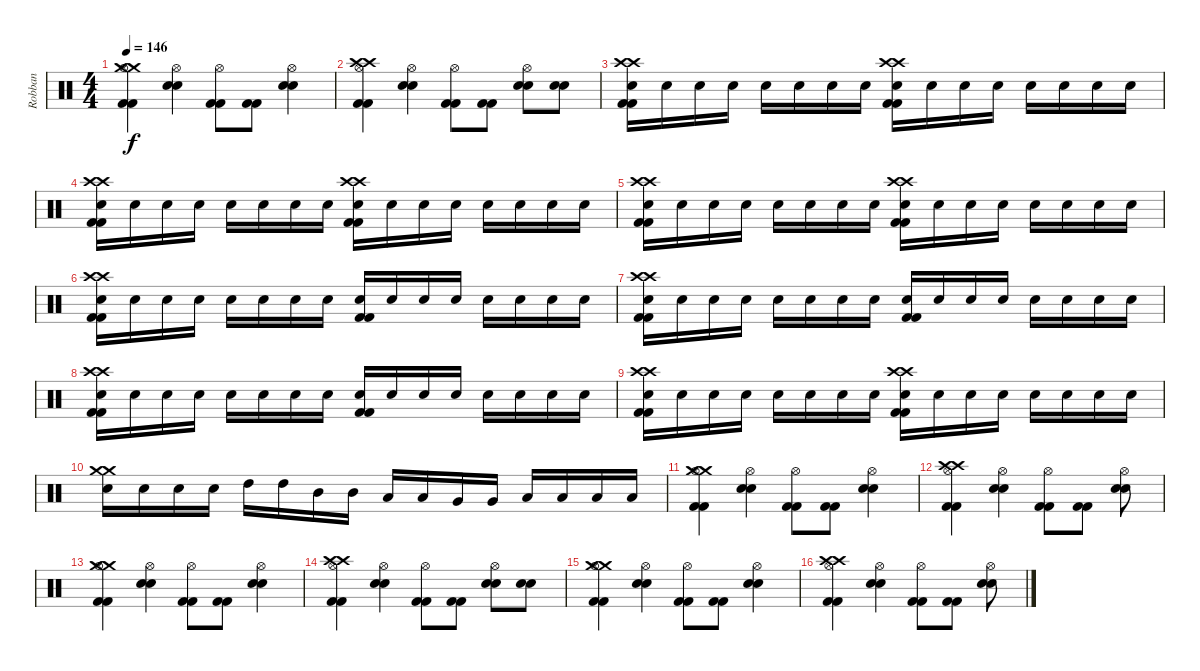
\track ("Robban" "Robban") {instrument percussion}
\staff {score}
\articulation defaults
\ts (4 4)
\tempo 146
\clef neutral
\ks c
("Crash medium (hit)" "Crash medium (hit)" "Hi-Hat (open)" "Kick (hit) 2" "Kick (hit) 2").4{dy f} ("Hi-Hat (open)" "Electric Snare (hit)" "Electric Snare (hit)").4 ("Hi-Hat (open)" "Kick (hit) 2" "Kick (hit) 2").8 ("Kick (hit) 2" "Kick (hit) 2").8 ("Hi-Hat (open)" "Electric Snare (hit)" "Electric Snare (hit)").4 |
("Crash high (hit)" "Crash high (hit)" "Hi-Hat (open)" "Kick (hit) 2" "Kick (hit) 2").4 ("Hi-Hat (open)" "Electric Snare (hit)" "Electric Snare (hit)").4 ("Hi-Hat (open)" "Kick (hit) 2" "Kick (hit) 2").8 ("Kick (hit) 2" "Kick (hit) 2").8 ("Hi-Hat (open)" "Electric Snare (hit)" "Electric Snare (hit)").8 ("Electric Snare (hit)" "Electric Snare (hit)").8 |
("Crash high (hit)" "Crash high (hit)" "Electric Snare (hit)" "Kick (hit) 2" "Kick (hit) 2").16 "Electric Snare (hit)".16 "Electric Snare (hit)".16 "Electric Snare (hit)".16 "Electric Snare (hit)".16 "Electric Snare (hit)".16 "Electric Snare (hit)".16 "Electric Snare (hit)".16 ("Crash high (hit)" "Crash high (hit)" "Electric Snare (hit)" "Kick (hit) 2" "Kick (hit) 2").16 "Electric Snare (hit)".16 "Electric Snare (hit)".16 "Electric Snare (hit)".16 "Electric Snare (hit)".16 "Electric Snare (hit)".16 "Electric Snare (hit)".16 "Electric Snare (hit)".16 |
("Crash high (hit)" "Crash high (hit)" "Electric Snare (hit)" "Kick (hit) 2" "Kick (hit) 2").16 "Electric Snare (hit)".16 "Electric Snare (hit)".16 "Electric Snare (hit)".16 "Electric Snare (hit)".16 "Electric Snare (hit)".16 "Electric Snare (hit)".16 "Electric Snare (hit)".16 ("Crash high (hit)" "Crash high (hit)" "Electric Snare (hit)" "Kick (hit) 2" "Kick (hit) 2").16 "Electric Snare (hit)".16 "Electric Snare (hit)".16 "Electric Snare (hit)".16 "Electric Snare (hit)".16 "Electric Snare (hit)".16 "Electric Snare (hit)".16 "Electric Snare (hit)".16 |
("Crash high (hit)" "Crash high (hit)" "Electric Snare (hit)" "Kick (hit) 2" "Kick (hit) 2").16 "Electric Snare (hit)".16 "Electric Snare (hit)".16 "Electric Snare (hit)".16 "Electric Snare (hit)".16 "Electric Snare (hit)".16 "Electric Snare (hit)".16 "Electric Snare (hit)".16 ("Crash high (hit)" "Crash high (hit)" "Electric Snare (hit)" "Kick (hit) 2" "Kick (hit) 2").16 "Electric Snare (hit)".16 "Electric Snare (hit)".16 "Electric Snare (hit)".16 "Electric Snare (hit)".16 "Electric Snare (hit)".16 "Electric Snare (hit)".16 "Electric Snare (hit)".16 |
("Crash high (hit)" "Crash high (hit)" "Electric Snare (hit)" "Kick (hit) 2" "Kick (hit) 2").16 "Electric Snare (hit)".16 "Electric Snare (hit)".16 "Electric Snare (hit)".16 "Electric Snare (hit)".16 "Electric Snare (hit)".16 "Electric Snare (hit)".16 "Electric Snare (hit)".16 ("Electric Snare (hit)" "Kick (hit) 2" "Kick (hit) 2").16 "Electric Snare (hit)".16 "Electric Snare (hit)".16 "Electric Snare (hit)".16 "Electric Snare (hit)".16 "Electric Snare (hit)".16 "Electric Snare (hit)".16 "Electric Snare (hit)".16 |
("Crash high (hit)" "Crash high (hit)" "Electric Snare (hit)" "Kick (hit) 2" "Kick (hit) 2").16 "Electric Snare (hit)".16 "Electric Snare (hit)".16 "Electric Snare (hit)".16 "Electric Snare (hit)".16 "Electric Snare (hit)".16 "Electric Snare (hit)".16 "Electric Snare (hit)".16 ("Electric Snare (hit)" "Kick (hit) 2" "Kick (hit) 2").16 "Electric Snare (hit)".16 "Electric Snare (hit)".16 "Electric Snare (hit)".16 "Electric Snare (hit)".16 "Electric Snare (hit)".16 "Electric Snare (hit)".16 "Electric Snare (hit)".16 |
("Crash high (hit)" "Crash high (hit)" "Electric Snare (hit)" "Kick (hit) 2" "Kick (hit) 2").16 "Electric Snare (hit)".16 "Electric Snare (hit)".16 "Electric Snare (hit)".16 "Electric Snare (hit)".16 "Electric Snare (hit)".16 "Electric Snare (hit)".16 "Electric Snare (hit)".16 ("Electric Snare (hit)" "Kick (hit) 2" "Kick (hit) 2").16 "Electric Snare (hit)".16 "Electric Snare (hit)".16 "Electric Snare (hit)".16 "Electric Snare (hit)".16 "Electric Snare (hit)".16 "Electric Snare (hit)".16 "Electric Snare (hit)".16 |
("Crash high (hit)" "Crash high (hit)" "Electric Snare (hit)" "Kick (hit) 2" "Kick (hit) 2").16 "Electric Snare (hit)".16 "Electric Snare (hit)".16 "Electric Snare (hit)".16 "Electric Snare (hit)".16 "Electric Snare (hit)".16 "Electric Snare (hit)".16 "Electric Snare (hit)".16 ("Crash high (hit)" "Crash high (hit)" "Electric Snare (hit)" "Kick (hit) 2" "Kick (hit) 2").16 "Electric Snare (hit)".16 "Electric Snare (hit)".16 "Electric Snare (hit)".16 "Electric Snare (hit)".16 "Electric Snare (hit)".16 "Electric Snare (hit)".16 "Electric Snare (hit)".16 |
("Crash medium (hit)" "Crash medium (hit)" "Electric Snare (hit)").16 "Electric Snare (hit)".16 "Electric Snare (hit)".16 "Electric Snare (hit)".16 "High Tom (hit)".16 "High Tom (hit)".16 "Mid Tom (hit)".16 "Mid Tom (hit)".16 "Low Tom (hit)".16 "Low Tom (hit)".16 "Very Low Tom (hit)".16 "Very Low Tom (hit)".16 "Low Floor Tom (hit)".16 "Low Floor Tom (hit)".16 "Low Floor Tom (hit)".16 "Low Floor Tom (hit)".16 |
("Crash medium (hit)" "Crash medium (hit)" "Hi-Hat (open)" "Kick (hit) 2" "Kick (hit) 2").4 ("Hi-Hat (open)" "Electric Snare (hit)" "Electric Snare (hit)").4 ("Hi-Hat (open)" "Kick (hit) 2" "Kick (hit) 2").8 ("Kick (hit) 2" "Kick (hit) 2").8 ("Hi-Hat (open)" "Electric Snare (hit)" "Electric Snare (hit)").4 |
("Crash high (hit)" "Crash high (hit)" "Hi-Hat (open)" "Kick (hit) 2" "Kick (hit) 2").4 ("Hi-Hat (open)" "Electric Snare (hit)" "Electric Snare (hit)").4 ("Hi-Hat (open)" "Kick (hit) 2" "Kick (hit) 2").8 ("Kick (hit) 2" "Kick (hit) 2").8 ("Hi-Hat (open)" "Electric Snare (hit)" "Electric Snare (hit)").8 |
("Crash medium (hit)" "Crash medium (hit)" "Hi-Hat (open)" "Kick (hit) 2" "Kick (hit) 2").4 ("Hi-Hat (open)" "Electric Snare (hit)" "Electric Snare (hit)").4 ("Hi-Hat (open)" "Kick (hit) 2" "Kick (hit) 2").8 ("Kick (hit) 2" "Kick (hit) 2").8 ("Hi-Hat (open)" "Electric Snare (hit)" "Electric Snare (hit)").4 |
("Crash high (hit)" "Crash high (hit)" "Hi-Hat (open)" "Kick (hit) 2" "Kick (hit) 2").4 ("Hi-Hat (open)" "Electric Snare (hit)" "Electric Snare (hit)").4 ("Hi-Hat (open)" "Kick (hit) 2" "Kick (hit) 2").8 ("Kick (hit) 2" "Kick (hit) 2").8 ("Hi-Hat (open)" "Electric Snare (hit)" "Electric Snare (hit)").8 ("Electric Snare (hit)" "Electric Snare (hit)").8 |
("Crash medium (hit)" "Crash medium (hit)" "Hi-Hat (open)" "Kick (hit) 2" "Kick (hit) 2").4 ("Hi-Hat (open)" "Electric Snare (hit)" "Electric Snare (hit)").4 ("Hi-Hat (open)" "Kick (hit) 2" "Kick (hit) 2").8 ("Kick (hit) 2" "Kick (hit) 2").8 ("Hi-Hat (open)" "Electric Snare (hit)" "Electric Snare (hit)").4 |
("Crash high (hit)" "Crash high (hit)" "Hi-Hat (open)" "Kick (hit) 2" "Kick (hit) 2").4 ("Hi-Hat (open)" "Electric Snare (hit)" "Electric Snare (hit)").4 ("Hi-Hat (open)" "Kick (hit) 2" "Kick (hit) 2").8 ("Kick (hit) 2" "Kick (hit) 2").8 ("Hi-Hat (open)" "Electric Snare (hit)" "Electric Snare (hit)").8
